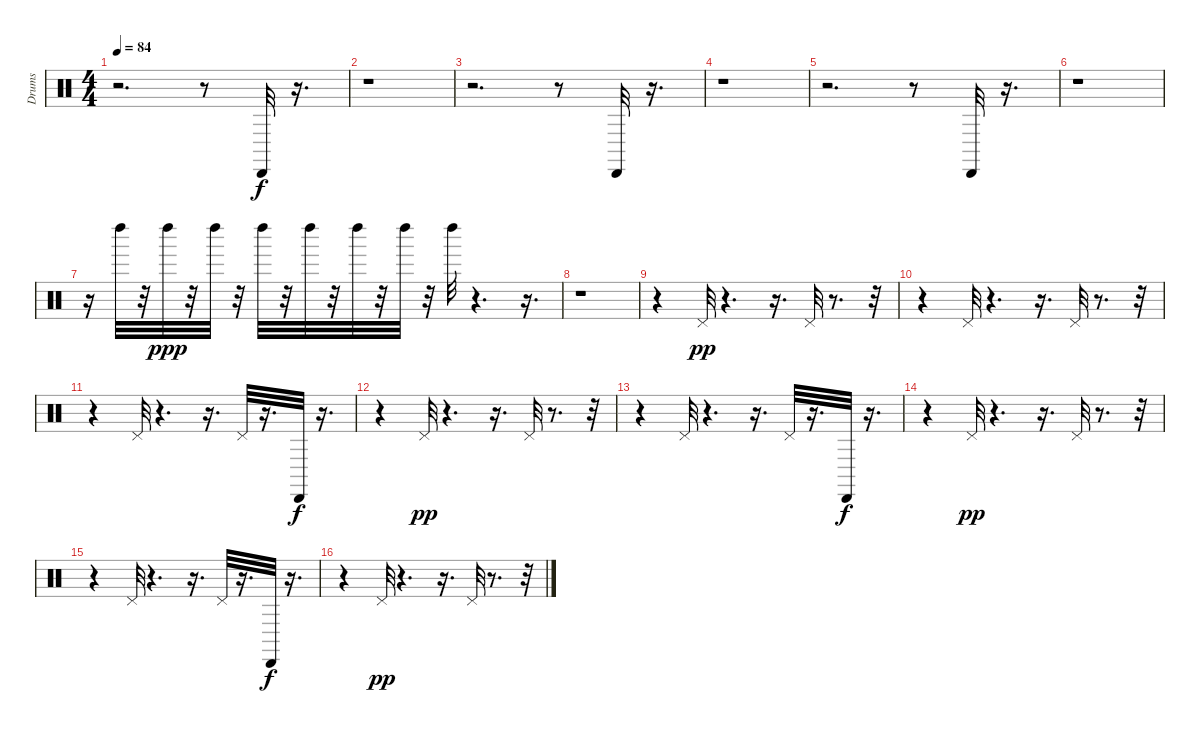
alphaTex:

\track ("Drums" "Drums") {instrument percussion}
\staff {score}
\articulation defaults
\ts (4 4)
\tempo 84
\clef neutral
\ks c
r.2{d dy f} r.8 "Cabasa (hit)".32 r.16{d} |
r.1 |
r.2{d} r.8 "Cabasa (hit)".32 r.16{d} |
r.1 |
r.2{d} r.8 "Cabasa (hit)".32 r.16{d} |
r.1 |
r.16 "Left Maraca (hit)".32 r.32 "Left Maraca (hit)".32{dy ppp} r.32 "Left Maraca (hit)".32 r.32 "Left Maraca (hit)".32 r.32 "Left Maraca (hit)".32 r.32 "Left Maraca (hit)".32 r.32 "Left Maraca (hit)".32 r.32 "Left Maraca (hit)".32 r.4{d} r.16{d} |
r.1 |
r.4 "Pedal Hi-Hat (hit)".32{dy pp} r.4{d} r.16{d} "Pedal Hi-Hat (hit)".32 r.8{d} r.32 |
r.4 "Pedal Hi-Hat (hit)".32 r.4{d} r.16{d} "Pedal Hi-Hat (hit)".32 r.8{d} r.32 |
r.4 "Pedal Hi-Hat (hit)".32 r.4{d} r.16{d} "Pedal Hi-Hat (hit)".32 r.16{d} "Cabasa (hit)".32{dy f} r.16{d} |
r.4 "Pedal Hi-Hat (hit)".32{dy pp} r.4{d} r.16{d} "Pedal Hi-Hat (hit)".32 r.8{d} r.32 |
r.4 "Pedal Hi-Hat (hit)".32 r.4{d} r.16{d} "Pedal Hi-Hat (hit)".32 r.16{d} "Cabasa (hit)".32{dy f} r.16{d} |
r.4 "Pedal Hi-Hat (hit)".32{dy pp} r.4{d} r.16{d} "Pedal Hi-Hat (hit)".32 r.8{d} r.32 |
r.4 "Pedal Hi-Hat (hit)".32 r.4{d} r.16{d} "Pedal Hi-Hat (hit)".32 r.16{d} "Cabasa (hit)".32{dy f} r.16{d} |
r.4 "Pedal Hi-Hat (hit)".32{dy pp} r.4{d} r.16{d} "Pedal Hi-Hat (hit)".32 r.8{d} r.32
